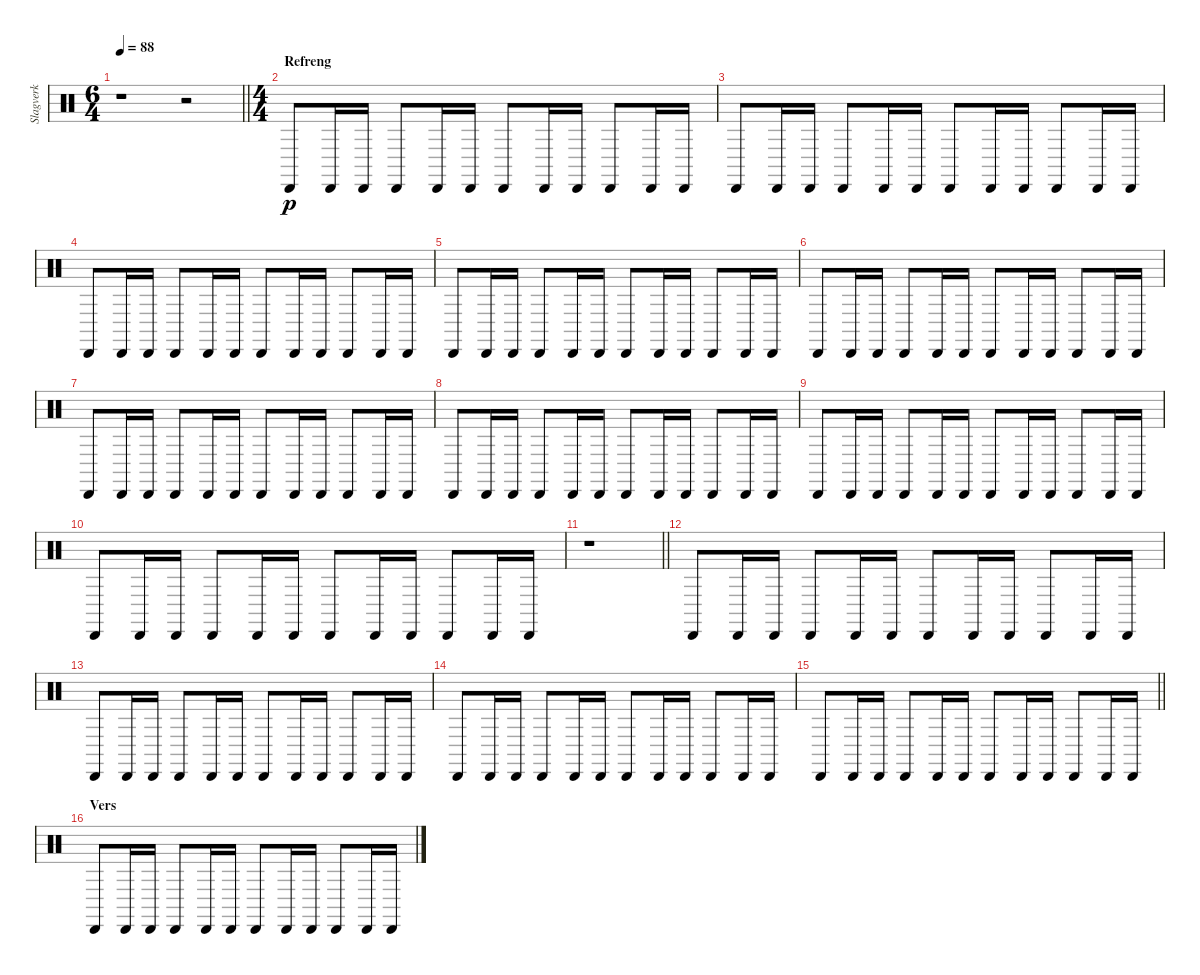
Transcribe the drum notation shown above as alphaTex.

\track ("Slagverk" "Slagverk") {instrument percussion}
\staff {score}
\articulation defaults
\ts (6 4)
\tempo 88
\clef neutral
\barLineRight lightlight
\ks c
r.1{dy p} r.2 |
\ts (4 4)
\section ("" "Refreng")
"Cabasa (hit)".8 "Cabasa (hit)".16 "Cabasa (hit)".16 "Cabasa (hit)".8 "Cabasa (hit)".16 "Cabasa (hit)".16 "Cabasa (hit)".8 "Cabasa (hit)".16 "Cabasa (hit)".16 "Cabasa (hit)".8 "Cabasa (hit)".16 "Cabasa (hit)".16 |
"Cabasa (hit)".8 "Cabasa (hit)".16 "Cabasa (hit)".16 "Cabasa (hit)".8 "Cabasa (hit)".16 "Cabasa (hit)".16 "Cabasa (hit)".8 "Cabasa (hit)".16 "Cabasa (hit)".16 "Cabasa (hit)".8 "Cabasa (hit)".16 "Cabasa (hit)".16 |
"Cabasa (hit)".8 "Cabasa (hit)".16 "Cabasa (hit)".16 "Cabasa (hit)".8 "Cabasa (hit)".16 "Cabasa (hit)".16 "Cabasa (hit)".8 "Cabasa (hit)".16 "Cabasa (hit)".16 "Cabasa (hit)".8 "Cabasa (hit)".16 "Cabasa (hit)".16 |
"Cabasa (hit)".8 "Cabasa (hit)".16 "Cabasa (hit)".16 "Cabasa (hit)".8 "Cabasa (hit)".16 "Cabasa (hit)".16 "Cabasa (hit)".8 "Cabasa (hit)".16 "Cabasa (hit)".16 "Cabasa (hit)".8 "Cabasa (hit)".16 "Cabasa (hit)".16 |
"Cabasa (hit)".8 "Cabasa (hit)".16 "Cabasa (hit)".16 "Cabasa (hit)".8 "Cabasa (hit)".16 "Cabasa (hit)".16 "Cabasa (hit)".8 "Cabasa (hit)".16 "Cabasa (hit)".16 "Cabasa (hit)".8 "Cabasa (hit)".16 "Cabasa (hit)".16 |
"Cabasa (hit)".8 "Cabasa (hit)".16 "Cabasa (hit)".16 "Cabasa (hit)".8 "Cabasa (hit)".16 "Cabasa (hit)".16 "Cabasa (hit)".8 "Cabasa (hit)".16 "Cabasa (hit)".16 "Cabasa (hit)".8 "Cabasa (hit)".16 "Cabasa (hit)".16 |
"Cabasa (hit)".8 "Cabasa (hit)".16 "Cabasa (hit)".16 "Cabasa (hit)".8 "Cabasa (hit)".16 "Cabasa (hit)".16 "Cabasa (hit)".8 "Cabasa (hit)".16 "Cabasa (hit)".16 "Cabasa (hit)".8 "Cabasa (hit)".16 "Cabasa (hit)".16 |
"Cabasa (hit)".8 "Cabasa (hit)".16 "Cabasa (hit)".16 "Cabasa (hit)".8 "Cabasa (hit)".16 "Cabasa (hit)".16 "Cabasa (hit)".8 "Cabasa (hit)".16 "Cabasa (hit)".16 "Cabasa (hit)".8 "Cabasa (hit)".16 "Cabasa (hit)".16 |
"Cabasa (hit)".8 "Cabasa (hit)".16 "Cabasa (hit)".16 "Cabasa (hit)".8 "Cabasa (hit)".16 "Cabasa (hit)".16 "Cabasa (hit)".8 "Cabasa (hit)".16 "Cabasa (hit)".16 "Cabasa (hit)".8 "Cabasa (hit)".16 "Cabasa (hit)".16 |
\barLineRight lightlight
r.1 |
"Cabasa (hit)".8 "Cabasa (hit)".16 "Cabasa (hit)".16 "Cabasa (hit)".8 "Cabasa (hit)".16 "Cabasa (hit)".16 "Cabasa (hit)".8 "Cabasa (hit)".16 "Cabasa (hit)".16 "Cabasa (hit)".8 "Cabasa (hit)".16 "Cabasa (hit)".16 |
"Cabasa (hit)".8 "Cabasa (hit)".16 "Cabasa (hit)".16 "Cabasa (hit)".8 "Cabasa (hit)".16 "Cabasa (hit)".16 "Cabasa (hit)".8 "Cabasa (hit)".16 "Cabasa (hit)".16 "Cabasa (hit)".8 "Cabasa (hit)".16 "Cabasa (hit)".16 |
"Cabasa (hit)".8 "Cabasa (hit)".16 "Cabasa (hit)".16 "Cabasa (hit)".8 "Cabasa (hit)".16 "Cabasa (hit)".16 "Cabasa (hit)".8 "Cabasa (hit)".16 "Cabasa (hit)".16 "Cabasa (hit)".8 "Cabasa (hit)".16 "Cabasa (hit)".16 |
\barLineRight lightlight "Cabasa (hit)".8 "Cabasa (hit)".16 "Cabasa (hit)".16 "Cabasa (hit)".8 "Cabasa (hit)".16 "Cabasa (hit)".16 "Cabasa (hit)".8 "Cabasa (hit)".16 "Cabasa (hit)".16 "Cabasa (hit)".8 "Cabasa (hit)".16 "Cabasa (hit)".16
|
\section ("" "Vers")
"Cabasa (hit)".8 "Cabasa (hit)".16 "Cabasa (hit)".16 "Cabasa (hit)".8 "Cabasa (hit)".16 "Cabasa (hit)".16 "Cabasa (hit)".8 "Cabasa (hit)".16 "Cabasa (hit)".16 "Cabasa (hit)".8 "Cabasa (hit)".16 "Cabasa (hit)".16
